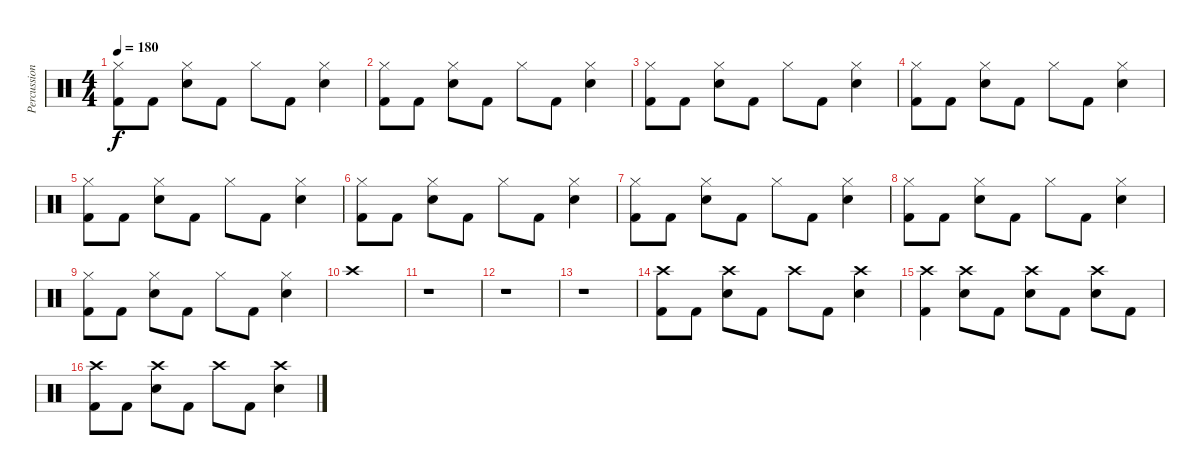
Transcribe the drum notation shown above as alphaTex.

\track ("Percussions" "Percussion") {instrument percussion}
\staff {score}
\articulation defaults
\ts (4 4)
\tempo 180
\clef neutral
\ks c
("Hi-Hat (closed)" "Kick (hit) 2").8{dy f} "Kick (hit) 2".8 ("Hi-Hat (closed)" "Snare (hit) 2").8 "Kick (hit) 2".8 "Hi-Hat (closed)".8 "Kick (hit) 2".8 ("Hi-Hat (closed)" "Snare (hit) 2").4 |
("Hi-Hat (closed)" "Kick (hit) 2").8 "Kick (hit) 2".8 ("Hi-Hat (closed)" "Snare (hit) 2").8 "Kick (hit) 2".8 "Hi-Hat (closed)".8 "Kick (hit) 2".8 ("Hi-Hat (closed)" "Snare (hit) 2").4 |
("Hi-Hat (closed)" "Kick (hit) 2").8 "Kick (hit) 2".8 ("Hi-Hat (closed)" "Snare (hit) 2").8 "Kick (hit) 2".8 "Hi-Hat (closed)".8 "Kick (hit) 2".8 ("Hi-Hat (closed)" "Snare (hit) 2").4 |
("Hi-Hat (closed)" "Kick (hit) 2").8 "Kick (hit) 2".8 ("Hi-Hat (closed)" "Snare (hit) 2").8 "Kick (hit) 2".8 "Hi-Hat (closed)".8 "Kick (hit) 2".8 ("Hi-Hat (closed)" "Snare (hit) 2").4 |
("Hi-Hat (closed)" "Kick (hit) 2").8 "Kick (hit) 2".8 ("Hi-Hat (closed)" "Snare (hit) 2").8 "Kick (hit) 2".8 "Hi-Hat (closed)".8 "Kick (hit) 2".8 ("Hi-Hat (closed)" "Snare (hit) 2").4 |
("Hi-Hat (closed)" "Kick (hit) 2").8 "Kick (hit) 2".8 ("Hi-Hat (closed)" "Snare (hit) 2").8 "Kick (hit) 2".8 "Hi-Hat (closed)".8 "Kick (hit) 2".8 ("Hi-Hat (closed)" "Snare (hit) 2").4 |
("Hi-Hat (closed)" "Kick (hit) 2").8 "Kick (hit) 2".8 ("Hi-Hat (closed)" "Snare (hit) 2").8 "Kick (hit) 2".8 "Hi-Hat (closed)".8 "Kick (hit) 2".8 ("Hi-Hat (closed)" "Snare (hit) 2").4 |
("Hi-Hat (closed)" "Kick (hit) 2").8 "Kick (hit) 2".8 ("Hi-Hat (closed)" "Snare (hit) 2").8 "Kick (hit) 2".8 "Hi-Hat (closed)".8 "Kick (hit) 2".8 ("Hi-Hat (closed)" "Snare (hit) 2").4 |
("Hi-Hat (closed)" "Kick (hit) 2").8 "Kick (hit) 2".8 ("Hi-Hat (closed)" "Snare (hit) 2").8 "Kick (hit) 2".8 "Hi-Hat (closed)".8 "Kick (hit) 2".8 ("Hi-Hat (closed)" "Snare (hit) 2").4 |
"Crash high (hit)".1 |
r.1 |
r.1 |
r.1 |
("Crash high (hit)" "Kick (hit) 2").8 "Kick (hit) 2".8 ("Crash high (hit)" "Snare (hit) 2").8 "Kick (hit) 2".8 "Crash high (hit)".8 "Kick (hit) 2".8 ("Crash high (hit)" "Snare (hit) 2").4 |
("Crash high (hit)" "Kick (hit) 2").4 ("Crash high (hit)" "Snare (hit) 2").8 "Kick (hit) 2".8 ("Crash high (hit)" "Snare (hit) 2").8 "Kick (hit) 2".8 ("Crash high (hit)" "Snare (hit) 2").8 "Kick (hit) 2".8 |
("Crash high (hit)" "Kick (hit) 2").8 "Kick (hit) 2".8 ("Crash high (hit)" "Snare (hit) 2").8 "Kick (hit) 2".8 "Crash high (hit)".8 "Kick (hit) 2".8 ("Crash high (hit)" "Snare (hit) 2").4
